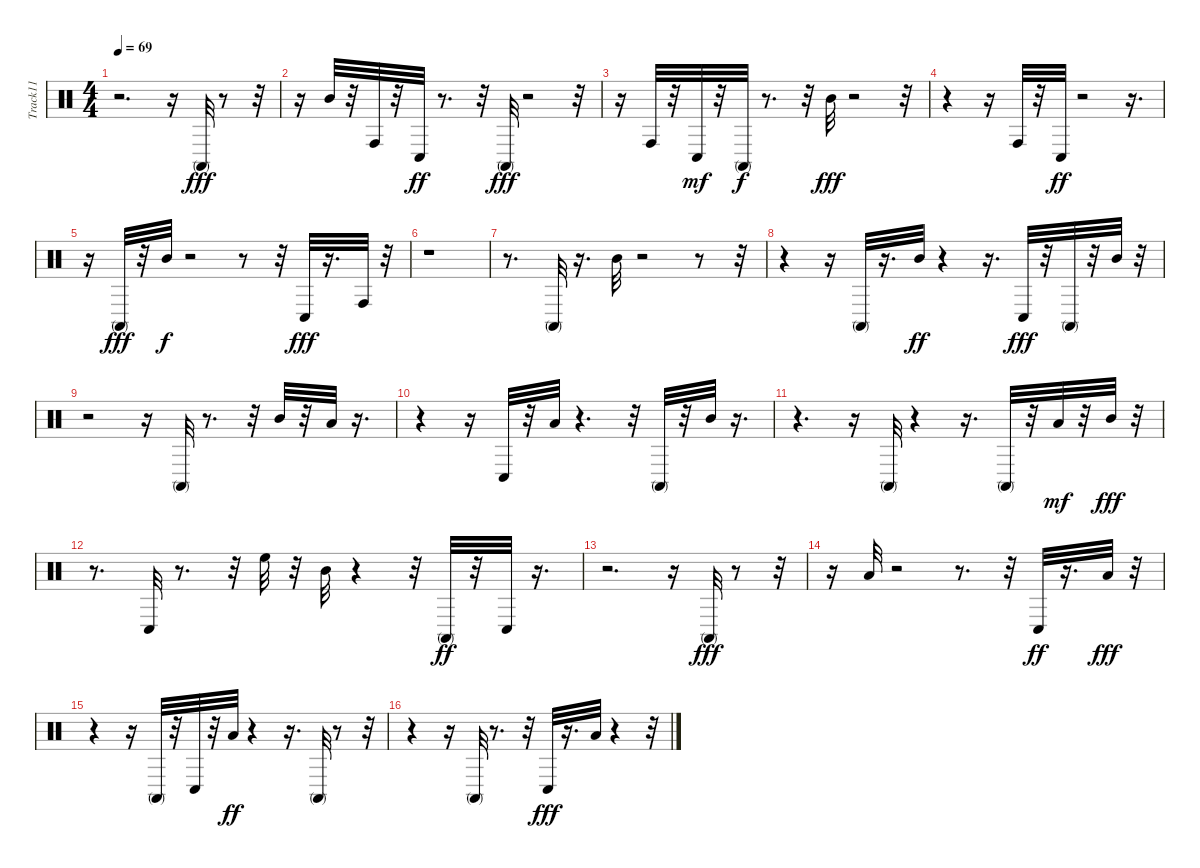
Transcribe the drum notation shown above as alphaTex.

\track ("Track11" "Track11") {instrument percussion}
\staff {score}
\articulation defaults
\ts (4 4)
\tempo 69
\clef neutral
\ks c
r.2{d dy mp} r.16 "Conga high (mute)".32{dy fff} r.8 r.32 |
r.16 "Mid Tom (hit)".32 r.32 "Conga high (hit)".32 r.32 "Conga low (hit)".32{dy ff} r.8{d} r.32 "Conga high (mute)".32{dy fff} r.2 r.32 |
r.16 "Conga high (hit)".32 r.32 "Conga low (hit)".32{dy mf} r.32 "Conga high (mute)".32{dy f} r.8{d} r.32 "Mid Tom (hit)".32{dy fff} r.2 r.32 |
r.4 r.16 "Conga high (hit)".32 r.32 "Conga low (hit)".32{dy ff} r.2 r.16{d} |
r.16 "Conga high (mute)".32{dy fff} r.32 "Mid Tom (hit)".32{dy f} r.2 r.8 r.32 "Conga low (hit)".32{dy fff} r.16{d} "Conga high (hit)".32 r.32 |
r.1 |
r.8{d} "Conga high (mute)".32 r.16{d} "Mid Tom (hit)".32 r.2 r.8 r.32 |
r.4 r.16 "Conga high (mute)".32 r.16{d} "Mid Tom (hit)".32{dy ff} r.4 r.16{d} "Conga low (hit)".32{dy fff} r.32 "Conga high (mute)".32 r.32 "Mid Tom (hit)".32 r.32 |
r.2 r.16 "Conga high (mute)".32 r.8{d} r.32 "Mid Tom (hit)".32 r.32 "Low Tom (hit)".32 r.16{d} |
r.4 r.16 "Conga low (hit)".32 r.32 "Low Tom (hit)".32 r.4{d} r.32 "Conga high (mute)".32 r.32 "Mid Tom (hit)".32 r.16{d} |
r.4{d} r.16 "Conga high (mute)".32 r.4 r.16{d} "Conga high (mute)".32 r.32 "Low Tom (hit)".32{dy mf} r.32 "Mid Tom (hit)".32{dy fff} r.32 |
r.8{d} "Conga low (hit)".32 r.8{d} r.32 "High Floor Tom (hit)".32 r.32 "Mid Tom (hit)".32 r.4 r.32 "Conga high (mute)".32{dy ff} r.32 "Conga low (hit)".32 r.16{d} |
r.2{d} r.16 "Conga high (mute)".32{dy fff} r.8 r.32 |
r.16 "Low Tom (hit)".32 r.2 r.8{d} r.32 "Conga low (hit)".32{dy ff} r.16{d} "Low Tom (hit)".32{dy fff} r.32 |
r.4 r.16 "Conga high (mute)".32 r.32 "Conga low (hit)".32 r.32 "Low Tom (hit)".32{dy ff} r.4 r.16{d} "Conga high (mute)".32 r.8 r.32 |
r.4 r.16 "Conga high (mute)".32 r.8{d} r.32 "Conga low (hit)".32{dy fff} r.16{d} "Low Tom (hit)".32 r.4 r.32
